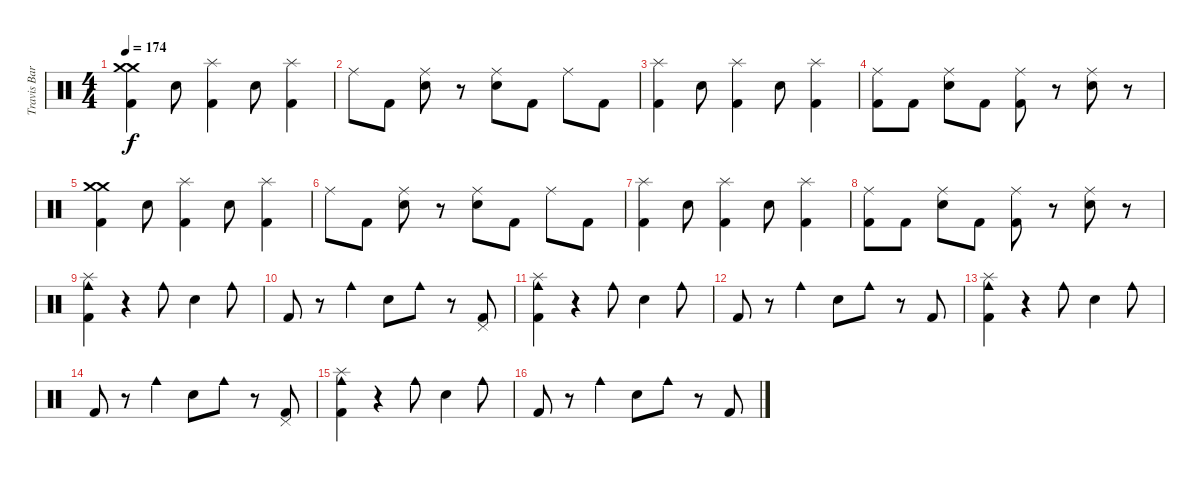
\track ("Travis Barker - Drums" "Travis Bar") {instrument percussion}
\staff {score}
\articulation defaults
\ts (4 4)
\tempo 174
\clef neutral
\ks c
("Crash medium (hit)" "Crash medium (hit)" "Kick (hit) 2").4{dy f} "Electric Snare (hit)".8 ("Splash (hit)" "Kick (hit) 2").4 "Electric Snare (hit)".8 ("Splash (hit)" "Kick (hit) 2").4 |
"Ride (middle)".8 "Kick (hit) 2".8 ("Ride (middle)" "Electric Snare (hit)").8 r.8 ("Ride (middle)" "Electric Snare (hit)").8 "Kick (hit) 2".8 "Ride (middle)".8 "Kick (hit) 2".8 |
("Splash (hit)" "Kick (hit) 2").4 "Electric Snare (hit)".8 ("Splash (hit)" "Kick (hit) 2").4 "Electric Snare (hit)".8 ("Splash (hit)" "Kick (hit) 2").4 |
("Ride (middle)" "Kick (hit) 2").8 "Kick (hit) 2".8 ("Ride (middle)" "Electric Snare (hit)").8 "Kick (hit) 2".8 ("Ride (middle)" "Kick (hit) 2").8 r.8 ("Ride (middle)" "Electric Snare (hit)").8 r.8 |
("Crash medium (hit)" "Crash medium (hit)" "Kick (hit) 2").4 "Electric Snare (hit)".8 ("Splash (hit)" "Kick (hit) 2").4 "Electric Snare (hit)".8 ("Splash (hit)" "Kick (hit) 2").4 |
"Ride (middle)".8 "Kick (hit) 2".8 ("Ride (middle)" "Electric Snare (hit)").8 r.8 ("Ride (middle)" "Electric Snare (hit)").8 "Kick (hit) 2".8 "Ride (middle)".8 "Kick (hit) 2".8 |
("Splash (hit)" "Kick (hit) 2").4 "Electric Snare (hit)".8 ("Splash (hit)" "Kick (hit) 2").4 "Electric Snare (hit)".8 ("Splash (hit)" "Kick (hit) 2").4 |
("Ride (middle)" "Kick (hit) 2").8 "Kick (hit) 2".8 ("Ride (middle)" "Electric Snare (hit)").8 "Kick (hit) 2".8 ("Ride (middle)" "Kick (hit) 2").8 r.8 ("Ride (middle)" "Electric Snare (hit)").8 r.8 |
("Splash (hit)" "Cowbell medium (hit)" "Kick (hit) 2").4 r.4 "Cowbell medium (hit)".8 "Electric Snare (hit)".4 "Cowbell medium (hit)".8 |
"Kick (hit) 2".8 r.8 "Cowbell medium (hit)".4 "Electric Snare (hit)".8 "Cowbell medium (hit)".8 r.8 ("Pedal Hi-Hat (hit)" "Kick (hit) 2").8 |
("Splash (hit)" "Cowbell medium (hit)" "Kick (hit) 2").4 r.4 "Cowbell medium (hit)".8 "Electric Snare (hit)".4 "Cowbell medium (hit)".8 |
"Kick (hit) 2".8 r.8 "Cowbell medium (hit)".4 "Electric Snare (hit)".8 "Cowbell medium (hit)".8 r.8 "Kick (hit) 2".8 |
("Splash (hit)" "Cowbell medium (hit)" "Kick (hit) 2").4 r.4 "Cowbell medium (hit)".8 "Electric Snare (hit)".4 "Cowbell medium (hit)".8 |
"Kick (hit) 2".8 r.8 "Cowbell medium (hit)".4 "Electric Snare (hit)".8 "Cowbell medium (hit)".8 r.8 ("Pedal Hi-Hat (hit)" "Kick (hit) 2").8 |
("Splash (hit)" "Cowbell medium (hit)" "Kick (hit) 2").4 r.4 "Cowbell medium (hit)".8 "Electric Snare (hit)".4 "Cowbell medium (hit)".8 |
"Kick (hit) 2".8 r.8 "Cowbell medium (hit)".4 "Electric Snare (hit)".8 "Cowbell medium (hit)".8 r.8 "Kick (hit) 2".8
